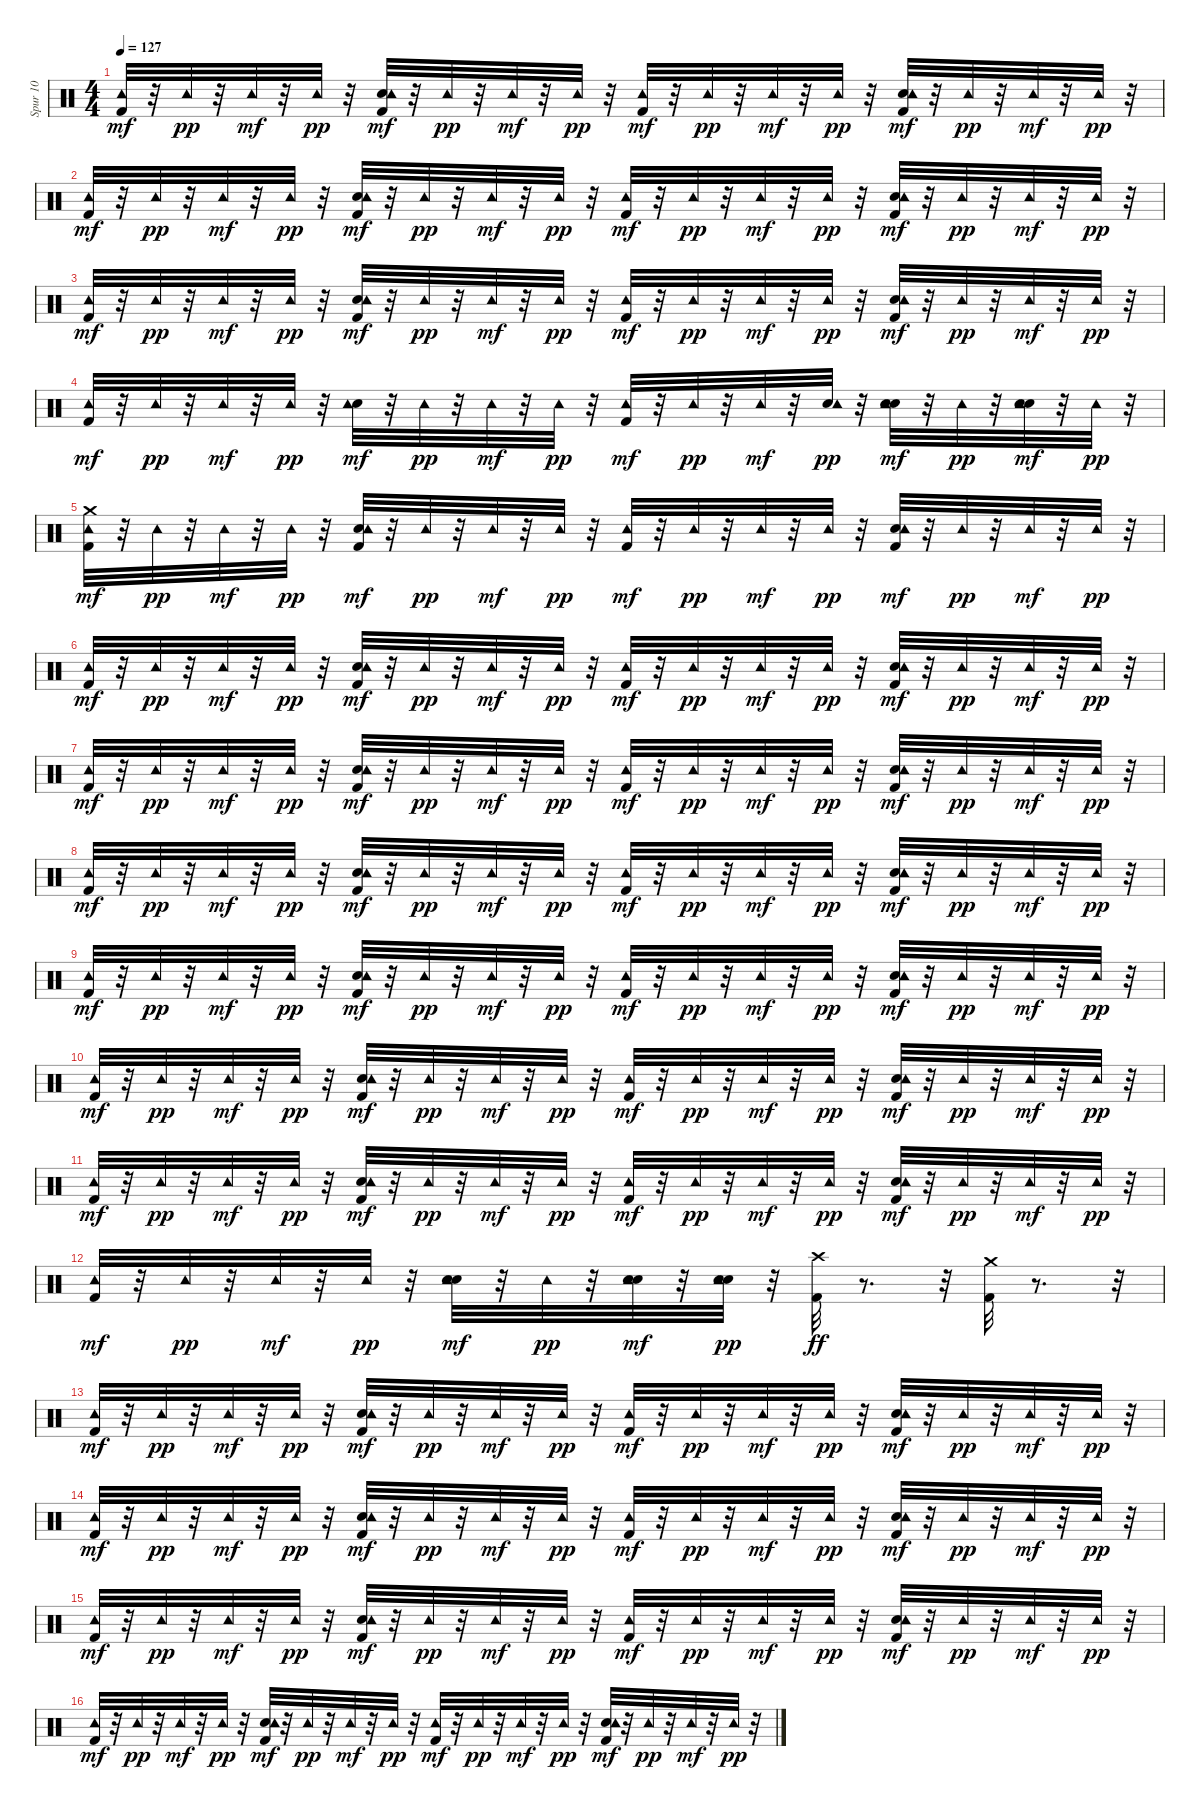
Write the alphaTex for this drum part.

\track ("Spur 10" "Spur 10") {instrument percussion}
\staff {score}
\articulation defaults
\ts (4 4)
\tempo 127
\clef neutral
\ks c
("Kick (hit) 2" "Tambourine (hit)").32{dy mf} r.32 "Tambourine (hit)".32{dy pp} r.32 "Tambourine (hit)".32{dy mf} r.32 "Tambourine (hit)".32{dy pp} r.32 ("Kick (hit) 2" "Snare (hit) 2" "Tambourine (hit)").32{dy mf} r.32 "Tambourine (hit)".32{dy pp} r.32 "Tambourine (hit)".32{dy mf} r.32 "Tambourine (hit)".32{dy pp} r.32 ("Kick (hit) 2" "Tambourine (hit)").32{dy mf} r.32 "Tambourine (hit)".32{dy pp} r.32 "Tambourine (hit)".32{dy mf} r.32 "Tambourine (hit)".32{dy pp} r.32 ("Kick (hit) 2" "Snare (hit) 2" "Tambourine (hit)").32{dy mf} r.32 "Tambourine (hit)".32{dy pp} r.32 "Tambourine (hit)".32{dy mf} r.32 "Tambourine (hit)".32{dy pp} r.32 |
("Kick (hit) 2" "Tambourine (hit)").32{dy mf} r.32 "Tambourine (hit)".32{dy pp} r.32 "Tambourine (hit)".32{dy mf} r.32 "Tambourine (hit)".32{dy pp} r.32 ("Kick (hit) 2" "Snare (hit) 2" "Tambourine (hit)").32{dy mf} r.32 "Tambourine (hit)".32{dy pp} r.32 "Tambourine (hit)".32{dy mf} r.32 "Tambourine (hit)".32{dy pp} r.32 ("Kick (hit) 2" "Tambourine (hit)").32{dy mf} r.32 "Tambourine (hit)".32{dy pp} r.32 "Tambourine (hit)".32{dy mf} r.32 "Tambourine (hit)".32{dy pp} r.32 ("Kick (hit) 2" "Snare (hit) 2" "Tambourine (hit)").32{dy mf} r.32 "Tambourine (hit)".32{dy pp} r.32 "Tambourine (hit)".32{dy mf} r.32 "Tambourine (hit)".32{dy pp} r.32 |
("Kick (hit) 2" "Tambourine (hit)").32{dy mf} r.32 "Tambourine (hit)".32{dy pp} r.32 "Tambourine (hit)".32{dy mf} r.32 "Tambourine (hit)".32{dy pp} r.32 ("Kick (hit) 2" "Snare (hit) 2" "Tambourine (hit)").32{dy mf} r.32 "Tambourine (hit)".32{dy pp} r.32 "Tambourine (hit)".32{dy mf} r.32 "Tambourine (hit)".32{dy pp} r.32 ("Kick (hit) 2" "Tambourine (hit)").32{dy mf} r.32 "Tambourine (hit)".32{dy pp} r.32 "Tambourine (hit)".32{dy mf} r.32 "Tambourine (hit)".32{dy pp} r.32 ("Kick (hit) 2" "Snare (hit) 2" "Tambourine (hit)").32{dy mf} r.32 "Tambourine (hit)".32{dy pp} r.32 "Tambourine (hit)".32{dy mf} r.32 "Tambourine (hit)".32{dy pp} r.32 |
("Kick (hit) 2" "Tambourine (hit)").32{dy mf} r.32 "Tambourine (hit)".32{dy pp} r.32 "Tambourine (hit)".32{dy mf} r.32 "Tambourine (hit)".32{dy pp} r.32 ("Snare (hit) 2" "Tambourine (hit)").32{dy mf} r.32 "Tambourine (hit)".32{dy pp} r.32 "Tambourine (hit)".32{dy mf} r.32 "Tambourine (hit)".32{dy pp} r.32 ("Kick (hit) 2" "Tambourine (hit)").32{dy mf} r.32 "Tambourine (hit)".32{dy pp} r.32 "Tambourine (hit)".32{dy mf} r.32 ("Snare (hit) 2" "Tambourine (hit)").32{dy pp} r.32 ("Snare (hit) 2" "Electric Snare (hit)" "Tambourine (hit)").32{dy mf} r.32 "Tambourine (hit)".32{dy pp} r.32 ("Snare (hit) 2" "Electric Snare (hit)" "Tambourine (hit)").32{dy mf} r.32 "Tambourine (hit)".32{dy pp} r.32 |
("Kick (hit) 2" "Tambourine (hit)" "Crash medium (hit)").32{dy mf} r.32 "Tambourine (hit)".32{dy pp} r.32 "Tambourine (hit)".32{dy mf} r.32 "Tambourine (hit)".32{dy pp} r.32 ("Kick (hit) 2" "Snare (hit) 2" "Tambourine (hit)").32{dy mf} r.32 "Tambourine (hit)".32{dy pp} r.32 "Tambourine (hit)".32{dy mf} r.32 "Tambourine (hit)".32{dy pp} r.32 ("Kick (hit) 2" "Tambourine (hit)").32{dy mf} r.32 "Tambourine (hit)".32{dy pp} r.32 "Tambourine (hit)".32{dy mf} r.32 "Tambourine (hit)".32{dy pp} r.32 ("Kick (hit) 2" "Snare (hit) 2" "Tambourine (hit)").32{dy mf} r.32 "Tambourine (hit)".32{dy pp} r.32 "Tambourine (hit)".32{dy mf} r.32 "Tambourine (hit)".32{dy pp} r.32 |
("Kick (hit) 2" "Tambourine (hit)").32{dy mf} r.32 "Tambourine (hit)".32{dy pp} r.32 "Tambourine (hit)".32{dy mf} r.32 "Tambourine (hit)".32{dy pp} r.32 ("Kick (hit) 2" "Snare (hit) 2" "Tambourine (hit)").32{dy mf} r.32 "Tambourine (hit)".32{dy pp} r.32 "Tambourine (hit)".32{dy mf} r.32 "Tambourine (hit)".32{dy pp} r.32 ("Kick (hit) 2" "Tambourine (hit)").32{dy mf} r.32 "Tambourine (hit)".32{dy pp} r.32 "Tambourine (hit)".32{dy mf} r.32 "Tambourine (hit)".32{dy pp} r.32 ("Kick (hit) 2" "Snare (hit) 2" "Tambourine (hit)").32{dy mf} r.32 "Tambourine (hit)".32{dy pp} r.32 "Tambourine (hit)".32{dy mf} r.32 "Tambourine (hit)".32{dy pp} r.32 |
("Kick (hit) 2" "Tambourine (hit)").32{dy mf} r.32 "Tambourine (hit)".32{dy pp} r.32 "Tambourine (hit)".32{dy mf} r.32 "Tambourine (hit)".32{dy pp} r.32 ("Kick (hit) 2" "Snare (hit) 2" "Tambourine (hit)").32{dy mf} r.32 "Tambourine (hit)".32{dy pp} r.32 "Tambourine (hit)".32{dy mf} r.32 "Tambourine (hit)".32{dy pp} r.32 ("Kick (hit) 2" "Tambourine (hit)").32{dy mf} r.32 "Tambourine (hit)".32{dy pp} r.32 "Tambourine (hit)".32{dy mf} r.32 "Tambourine (hit)".32{dy pp} r.32 ("Kick (hit) 2" "Snare (hit) 2" "Tambourine (hit)").32{dy mf} r.32 "Tambourine (hit)".32{dy pp} r.32 "Tambourine (hit)".32{dy mf} r.32 "Tambourine (hit)".32{dy pp} r.32 |
("Kick (hit) 2" "Tambourine (hit)").32{dy mf} r.32 "Tambourine (hit)".32{dy pp} r.32 "Tambourine (hit)".32{dy mf} r.32 "Tambourine (hit)".32{dy pp} r.32 ("Kick (hit) 2" "Snare (hit) 2" "Tambourine (hit)").32{dy mf} r.32 "Tambourine (hit)".32{dy pp} r.32 "Tambourine (hit)".32{dy mf} r.32 "Tambourine (hit)".32{dy pp} r.32 ("Kick (hit) 2" "Tambourine (hit)").32{dy mf} r.32 "Tambourine (hit)".32{dy pp} r.32 "Tambourine (hit)".32{dy mf} r.32 "Tambourine (hit)".32{dy pp} r.32 ("Kick (hit) 2" "Snare (hit) 2" "Tambourine (hit)").32{dy mf} r.32 "Tambourine (hit)".32{dy pp} r.32 "Tambourine (hit)".32{dy mf} r.32 "Tambourine (hit)".32{dy pp} r.32 |
("Kick (hit) 2" "Tambourine (hit)").32{dy mf} r.32 "Tambourine (hit)".32{dy pp} r.32 "Tambourine (hit)".32{dy mf} r.32 "Tambourine (hit)".32{dy pp} r.32 ("Kick (hit) 2" "Snare (hit) 2" "Tambourine (hit)").32{dy mf} r.32 "Tambourine (hit)".32{dy pp} r.32 "Tambourine (hit)".32{dy mf} r.32 "Tambourine (hit)".32{dy pp} r.32 ("Kick (hit) 2" "Tambourine (hit)").32{dy mf} r.32 "Tambourine (hit)".32{dy pp} r.32 "Tambourine (hit)".32{dy mf} r.32 "Tambourine (hit)".32{dy pp} r.32 ("Kick (hit) 2" "Snare (hit) 2" "Tambourine (hit)").32{dy mf} r.32 "Tambourine (hit)".32{dy pp} r.32 "Tambourine (hit)".32{dy mf} r.32 "Tambourine (hit)".32{dy pp} r.32 |
("Kick (hit) 2" "Tambourine (hit)").32{dy mf} r.32 "Tambourine (hit)".32{dy pp} r.32 "Tambourine (hit)".32{dy mf} r.32 "Tambourine (hit)".32{dy pp} r.32 ("Kick (hit) 2" "Snare (hit) 2" "Tambourine (hit)").32{dy mf} r.32 "Tambourine (hit)".32{dy pp} r.32 "Tambourine (hit)".32{dy mf} r.32 "Tambourine (hit)".32{dy pp} r.32 ("Kick (hit) 2" "Tambourine (hit)").32{dy mf} r.32 "Tambourine (hit)".32{dy pp} r.32 "Tambourine (hit)".32{dy mf} r.32 "Tambourine (hit)".32{dy pp} r.32 ("Kick (hit) 2" "Snare (hit) 2" "Tambourine (hit)").32{dy mf} r.32 "Tambourine (hit)".32{dy pp} r.32 "Tambourine (hit)".32{dy mf} r.32 "Tambourine (hit)".32{dy pp} r.32 |
("Kick (hit) 2" "Tambourine (hit)").32{dy mf} r.32 "Tambourine (hit)".32{dy pp} r.32 "Tambourine (hit)".32{dy mf} r.32 "Tambourine (hit)".32{dy pp} r.32 ("Kick (hit) 2" "Snare (hit) 2" "Tambourine (hit)").32{dy mf} r.32 "Tambourine (hit)".32{dy pp} r.32 "Tambourine (hit)".32{dy mf} r.32 "Tambourine (hit)".32{dy pp} r.32 ("Kick (hit) 2" "Tambourine (hit)").32{dy mf} r.32 "Tambourine (hit)".32{dy pp} r.32 "Tambourine (hit)".32{dy mf} r.32 "Tambourine (hit)".32{dy pp} r.32 ("Kick (hit) 2" "Snare (hit) 2" "Tambourine (hit)").32{dy mf} r.32 "Tambourine (hit)".32{dy pp} r.32 "Tambourine (hit)".32{dy mf} r.32 "Tambourine (hit)".32{dy pp} r.32 |
("Kick (hit) 2" "Tambourine (hit)").32{dy mf} r.32 "Tambourine (hit)".32{dy pp} r.32 "Tambourine (hit)".32{dy mf} r.32 "Tambourine (hit)".32{dy pp} r.32 ("Snare (hit) 2" "Electric Snare (hit)" "Tambourine (hit)").32{dy mf} r.32 "Tambourine (hit)".32{dy pp} r.32 ("Snare (hit) 2" "Electric Snare (hit)" "Tambourine (hit)").32{dy mf} r.32 ("Snare (hit) 2" "Electric Snare (hit)" "Tambourine (hit)").32{dy pp} r.32 ("Kick (hit) 2" "Crash high (hit)").32{dy ff} r.8{d} r.32 ("Kick (hit) 2" "Crash medium (hit)").32 r.8{d} r.32 |
("Kick (hit) 2" "Tambourine (hit)").32{dy mf} r.32 "Tambourine (hit)".32{dy pp} r.32 "Tambourine (hit)".32{dy mf} r.32 "Tambourine (hit)".32{dy pp} r.32 ("Kick (hit) 2" "Snare (hit) 2" "Tambourine (hit)").32{dy mf} r.32 "Tambourine (hit)".32{dy pp} r.32 "Tambourine (hit)".32{dy mf} r.32 "Tambourine (hit)".32{dy pp} r.32 ("Kick (hit) 2" "Tambourine (hit)").32{dy mf} r.32 "Tambourine (hit)".32{dy pp} r.32 "Tambourine (hit)".32{dy mf} r.32 "Tambourine (hit)".32{dy pp} r.32 ("Kick (hit) 2" "Snare (hit) 2" "Tambourine (hit)").32{dy mf} r.32 "Tambourine (hit)".32{dy pp} r.32 "Tambourine (hit)".32{dy mf} r.32 "Tambourine (hit)".32{dy pp} r.32 |
("Kick (hit) 2" "Tambourine (hit)").32{dy mf} r.32 "Tambourine (hit)".32{dy pp} r.32 "Tambourine (hit)".32{dy mf} r.32 "Tambourine (hit)".32{dy pp} r.32 ("Kick (hit) 2" "Snare (hit) 2" "Tambourine (hit)").32{dy mf} r.32 "Tambourine (hit)".32{dy pp} r.32 "Tambourine (hit)".32{dy mf} r.32 "Tambourine (hit)".32{dy pp} r.32 ("Kick (hit) 2" "Tambourine (hit)").32{dy mf} r.32 "Tambourine (hit)".32{dy pp} r.32 "Tambourine (hit)".32{dy mf} r.32 "Tambourine (hit)".32{dy pp} r.32 ("Kick (hit) 2" "Snare (hit) 2" "Tambourine (hit)").32{dy mf} r.32 "Tambourine (hit)".32{dy pp} r.32 "Tambourine (hit)".32{dy mf} r.32 "Tambourine (hit)".32{dy pp} r.32 |
("Kick (hit) 2" "Tambourine (hit)").32{dy mf} r.32 "Tambourine (hit)".32{dy pp} r.32 "Tambourine (hit)".32{dy mf} r.32 "Tambourine (hit)".32{dy pp} r.32 ("Kick (hit) 2" "Snare (hit) 2" "Tambourine (hit)").32{dy mf} r.32 "Tambourine (hit)".32{dy pp} r.32 "Tambourine (hit)".32{dy mf} r.32 "Tambourine (hit)".32{dy pp} r.32 ("Kick (hit) 2" "Tambourine (hit)").32{dy mf} r.32 "Tambourine (hit)".32{dy pp} r.32 "Tambourine (hit)".32{dy mf} r.32 "Tambourine (hit)".32{dy pp} r.32 ("Kick (hit) 2" "Snare (hit) 2" "Tambourine (hit)").32{dy mf} r.32 "Tambourine (hit)".32{dy pp} r.32 "Tambourine (hit)".32{dy mf} r.32 "Tambourine (hit)".32{dy pp} r.32 |
("Kick (hit) 2" "Tambourine (hit)").32{dy mf} r.32 "Tambourine (hit)".32{dy pp} r.32 "Tambourine (hit)".32{dy mf} r.32 "Tambourine (hit)".32{dy pp} r.32 ("Kick (hit) 2" "Snare (hit) 2" "Tambourine (hit)").32{dy mf} r.32 "Tambourine (hit)".32{dy pp} r.32 "Tambourine (hit)".32{dy mf} r.32 "Tambourine (hit)".32{dy pp} r.32 ("Kick (hit) 2" "Tambourine (hit)").32{dy mf} r.32 "Tambourine (hit)".32{dy pp} r.32 "Tambourine (hit)".32{dy mf} r.32 "Tambourine (hit)".32{dy pp} r.32 ("Kick (hit) 2" "Snare (hit) 2" "Tambourine (hit)").32{dy mf} r.32 "Tambourine (hit)".32{dy pp} r.32 "Tambourine (hit)".32{dy mf} r.32 "Tambourine (hit)".32{dy pp} r.32
